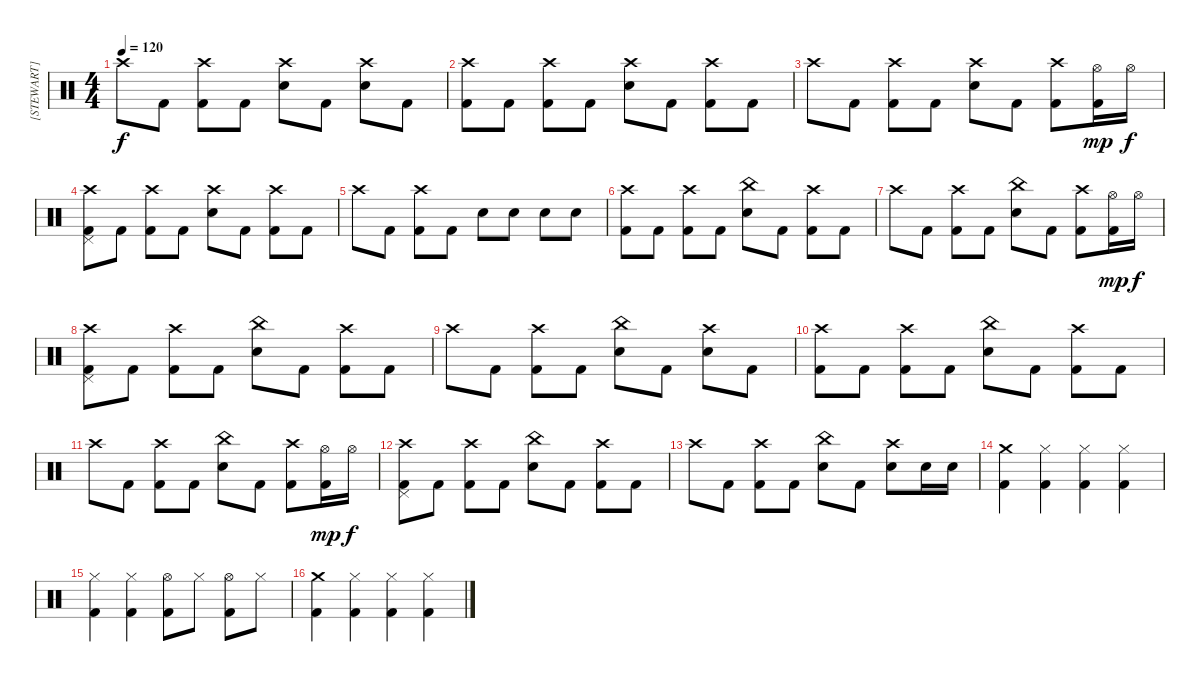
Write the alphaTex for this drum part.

\track ("[STEWART]" "[STEWART]") {instrument percussion}
\staff {score}
\articulation defaults
\ts (4 4)
\tempo 120
\clef neutral
\ks c "Crash high (hit)".8{dy f} "Kick (hit) 2".8
("Crash high (hit)" "Kick (hit) 2").8 "Kick (hit) 2".8 ("Crash high (hit)" "Electric Snare (hit)").8 "Kick (hit) 2".8 ("Crash high (hit)" "Electric Snare (hit)").8 "Kick (hit) 2".8 |
("Crash high (hit)" "Kick (hit) 2").8 "Kick (hit) 2".8 ("Crash high (hit)" "Kick (hit) 2").8 "Kick (hit) 2".8 ("Crash high (hit)" "Electric Snare (hit)").8 "Kick (hit) 2".8 ("Crash high (hit)" "Kick (hit) 2").8 "Kick (hit) 2".8 |
"Crash high (hit)".8 "Kick (hit) 2".8 ("Crash high (hit)" "Kick (hit) 2").8 "Kick (hit) 2".8 ("Crash high (hit)" "Electric Snare (hit)").8 "Kick (hit) 2".8 ("Crash high (hit)" "Kick (hit) 2").8 ("Hi-Hat (open)" "Kick (hit) 2").16{dy mp} "Hi-Hat (open)".16{dy f} |
("Crash high (hit)" "Pedal Hi-Hat (hit)" "Kick (hit) 2").8 "Kick (hit) 2".8 ("Crash high (hit)" "Kick (hit) 2").8 "Kick (hit) 2".8 ("Crash high (hit)" "Electric Snare (hit)").8 "Kick (hit) 2".8 ("Crash high (hit)" "Kick (hit) 2").8 "Kick (hit) 2".8 |
"Crash high (hit)".8 "Kick (hit) 2".8 ("Crash high (hit)" "Kick (hit) 2").8 "Kick (hit) 2".8 "Electric Snare (hit)".8 "Electric Snare (hit)".8 "Electric Snare (hit)".8 "Electric Snare (hit)".8 |
("Crash high (hit)" "Kick (hit) 2").8 "Kick (hit) 2".8 ("Crash high (hit)" "Kick (hit) 2").8 "Kick (hit) 2".8 ("China (hit)" "Electric Snare (hit)").8 "Kick (hit) 2".8 ("Crash high (hit)" "Kick (hit) 2").8 "Kick (hit) 2".8 |
"Crash high (hit)".8 "Kick (hit) 2".8 ("Crash high (hit)" "Kick (hit) 2").8 "Kick (hit) 2".8 ("China (hit)" "Electric Snare (hit)").8 "Kick (hit) 2".8 ("Crash high (hit)" "Kick (hit) 2").8 ("Hi-Hat (open)" "Kick (hit) 2").16{dy mp} "Hi-Hat (open)".16{dy f} |
("Crash high (hit)" "Pedal Hi-Hat (hit)" "Kick (hit) 2").8 "Kick (hit) 2".8 ("Crash high (hit)" "Kick (hit) 2").8 "Kick (hit) 2".8 ("China (hit)" "Electric Snare (hit)").8 "Kick (hit) 2".8 ("Crash high (hit)" "Kick (hit) 2").8 "Kick (hit) 2".8 |
"Crash high (hit)".8 "Kick (hit) 2".8 ("Crash high (hit)" "Kick (hit) 2").8 "Kick (hit) 2".8 ("China (hit)" "Electric Snare (hit)").8 "Kick (hit) 2".8 ("Crash high (hit)" "Electric Snare (hit)").8 "Kick (hit) 2".8 |
("Crash high (hit)" "Kick (hit) 2").8 "Kick (hit) 2".8 ("Crash high (hit)" "Kick (hit) 2").8 "Kick (hit) 2".8 ("China (hit)" "Electric Snare (hit)").8 "Kick (hit) 2".8 ("Crash high (hit)" "Kick (hit) 2").8 "Kick (hit) 2".8 |
"Crash high (hit)".8 "Kick (hit) 2".8 ("Crash high (hit)" "Kick (hit) 2").8 "Kick (hit) 2".8 ("China (hit)" "Electric Snare (hit)").8 "Kick (hit) 2".8 ("Crash high (hit)" "Kick (hit) 2").8 ("Hi-Hat (open)" "Kick (hit) 2").16{dy mp} "Hi-Hat (open)".16{dy f} |
("Crash high (hit)" "Pedal Hi-Hat (hit)" "Kick (hit) 2").8 "Kick (hit) 2".8 ("Crash high (hit)" "Kick (hit) 2").8 "Kick (hit) 2".8 ("China (hit)" "Electric Snare (hit)").8 "Kick (hit) 2".8 ("Crash high (hit)" "Kick (hit) 2").8 "Kick (hit) 2".8 |
"Crash high (hit)".8 "Kick (hit) 2".8 ("Crash high (hit)" "Kick (hit) 2").8 "Kick (hit) 2".8 ("China (hit)" "Electric Snare (hit)").8 "Kick (hit) 2".8 ("Crash high (hit)" "Electric Snare (hit)").8 "Electric Snare (hit)".16 "Electric Snare (hit)".16 |
("Crash medium (hit)" "Kick (hit) 2").4 ("Hi-Hat (closed)" "Kick (hit) 2").4 ("Hi-Hat (closed)" "Kick (hit) 2").4 ("Hi-Hat (closed)" "Kick (hit) 2").4 |
("Hi-Hat (closed)" "Kick (hit) 2").4 ("Hi-Hat (closed)" "Kick (hit) 2").4 ("Hi-Hat (open)" "Kick (hit) 2").8 "Hi-Hat (closed)".8 ("Hi-Hat (open)" "Kick (hit) 2").8 "Hi-Hat (closed)".8 |
("Crash medium (hit)" "Kick (hit) 2").4 ("Hi-Hat (closed)" "Kick (hit) 2").4 ("Hi-Hat (closed)" "Kick (hit) 2").4 ("Hi-Hat (closed)" "Kick (hit) 2").4
